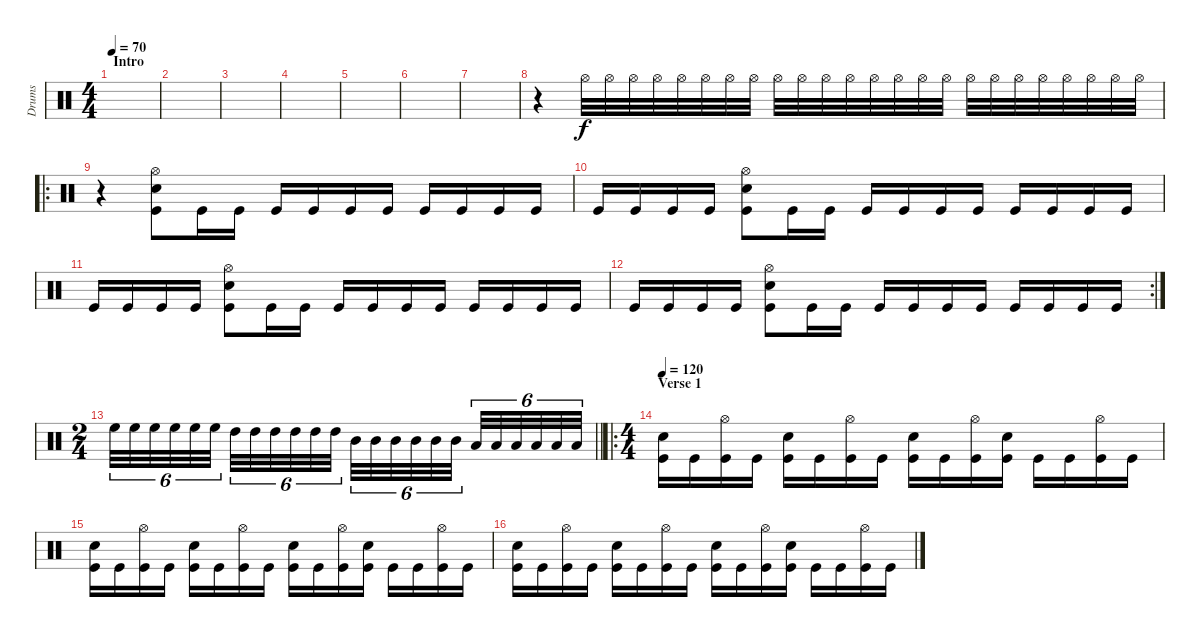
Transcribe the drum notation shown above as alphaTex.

\track ("Drums" "Drums") {instrument percussion}
\staff {score}
\articulation defaults
\ts (4 4)
\section ("" "Intro")
\tempo 70
\clef neutral
\ks c
|
|
|
|
|
|
|
r.4{volume 0} "Hi-Hat (open)".32{volume 13} "Hi-Hat (open)".32 "Hi-Hat (open)".32 "Hi-Hat (open)".32 "Hi-Hat (open)".32 "Hi-Hat (open)".32 "Hi-Hat (open)".32 "Hi-Hat (open)".32 "Hi-Hat (open)".32 "Hi-Hat (open)".32 "Hi-Hat (open)".32 "Hi-Hat (open)".32 "Hi-Hat (open)".32 "Hi-Hat (open)".32 "Hi-Hat (open)".32 "Hi-Hat (open)".32 "Hi-Hat (open)".32 "Hi-Hat (open)".32 "Hi-Hat (open)".32 "Hi-Hat (open)".32 "Hi-Hat (open)".32 "Hi-Hat (open)".32 "Hi-Hat (open)".32 "Hi-Hat (open)".32 |
\ro
r.4 ("Snare (hit) 2" "Hi-Hat (open)" "Kick (hit)").8 "Kick (hit)".16 "Kick (hit)".16 "Kick (hit)".16 "Kick (hit)".16 "Kick (hit)".16 "Kick (hit)".16 "Kick (hit)".16 "Kick (hit)".16 "Kick (hit)".16 "Kick (hit)".16 |
"Kick (hit)".16 "Kick (hit)".16 "Kick (hit)".16 "Kick (hit)".16 ("Snare (hit) 2" "Hi-Hat (open)" "Kick (hit)").8 "Kick (hit)".16 "Kick (hit)".16 "Kick (hit)".16 "Kick (hit)".16 "Kick (hit)".16 "Kick (hit)".16 "Kick (hit)".16 "Kick (hit)".16 "Kick (hit)".16 "Kick (hit)".16 |
"Kick (hit)".16 "Kick (hit)".16 "Kick (hit)".16 "Kick (hit)".16 ("Snare (hit) 2" "Hi-Hat (open)" "Kick (hit)").8 "Kick (hit)".16 "Kick (hit)".16 "Kick (hit)".16 "Kick (hit)".16 "Kick (hit)".16 "Kick (hit)".16 "Kick (hit)".16 "Kick (hit)".16 "Kick (hit)".16 "Kick (hit)".16 |
\rc 2 "Kick (hit)".16 "Kick (hit)".16 "Kick (hit)".16 "Kick (hit)".16
("Snare (hit) 2" "Hi-Hat (open)" "Kick (hit)").8 "Kick (hit)".16 "Kick (hit)".16 "Kick (hit)".16 "Kick (hit)".16 "Kick (hit)".16 "Kick (hit)".16 "Kick (hit)".16 "Kick (hit)".16 "Kick (hit)".16 "Kick (hit)".16 |
\ts (2 4)
\barLineRight lightlight "High Floor Tom (hit)".32{tu (6 4) volume 0} "High Floor Tom (hit)".32{tu (6 4) volume 7} "High Floor Tom (hit)".32{tu (6 4)} "High Floor Tom (hit)".32{tu (6 4)} "High Floor Tom (hit)".32{tu (6 4)} "High Floor Tom (hit)".32{tu (6 4)} "High Tom (hit)".32{tu (6 4)} "High Tom (hit)".32{tu (6 4)} "High Tom (hit)".32{tu (6 4)} "High Tom (hit)".32{tu (6 4)} "High Tom (hit)".32{tu (6 4)} "High Tom (hit)".32{tu (6 4)} "Mid Tom (hit)".32{tu (6 4)} "Mid Tom (hit)".32{tu (6 4) volume 13} "Mid Tom (hit)".32{tu (6 4)} "Mid Tom (hit)".32{tu (6 4)} "Mid Tom (hit)".32{tu (6 4)} "Mid Tom (hit)".32{tu (6 4)} "Low Tom (hit)".32{tu (6 4)} "Low Tom (hit)".32{tu (6 4)} "Low Tom (hit)".32{tu (6 4)} "Low Tom (hit)".32{tu (6 4)} "Low Tom (hit)".32{tu (6 4)} "Low Tom (hit)".32{tu (6 4)}
|
\ro
\ts (4 4)
\section ("" "Verse 1")
\tempo 130
\tempo 120
("Snare (hit) 2" "Kick (hit)").16 "Kick (hit)".16 ("Hi-Hat (open)" "Kick (hit)").16 "Kick (hit)".16 ("Snare (hit) 2" "Kick (hit)").16 "Kick (hit)".16 ("Hi-Hat (open)" "Kick (hit)").16 "Kick (hit)".16 ("Snare (hit) 2" "Kick (hit)").16 "Kick (hit)".16 ("Hi-Hat (open)" "Kick (hit)").16 ("Snare (hit) 2" "Kick (hit)").16 "Kick (hit)".16 "Kick (hit)".16 ("Hi-Hat (open)" "Kick (hit)").16 "Kick (hit)".16 |
("Snare (hit) 2" "Kick (hit)").16 "Kick (hit)".16 ("Hi-Hat (open)" "Kick (hit)").16 "Kick (hit)".16 ("Snare (hit) 2" "Kick (hit)").16 "Kick (hit)".16 ("Hi-Hat (open)" "Kick (hit)").16 "Kick (hit)".16 ("Snare (hit) 2" "Kick (hit)").16 "Kick (hit)".16 ("Hi-Hat (open)" "Kick (hit)").16 ("Snare (hit) 2" "Kick (hit)").16 "Kick (hit)".16 "Kick (hit)".16 ("Hi-Hat (open)" "Kick (hit)").16 "Kick (hit)".16 |
("Snare (hit) 2" "Kick (hit)").16 "Kick (hit)".16 ("Hi-Hat (open)" "Kick (hit)").16 "Kick (hit)".16 ("Snare (hit) 2" "Kick (hit)").16 "Kick (hit)".16 ("Hi-Hat (open)" "Kick (hit)").16 "Kick (hit)".16 ("Snare (hit) 2" "Kick (hit)").16 "Kick (hit)".16 ("Hi-Hat (open)" "Kick (hit)").16 ("Snare (hit) 2" "Kick (hit)").16 "Kick (hit)".16 "Kick (hit)".16 ("Hi-Hat (open)" "Kick (hit)").16 "Kick (hit)".16
